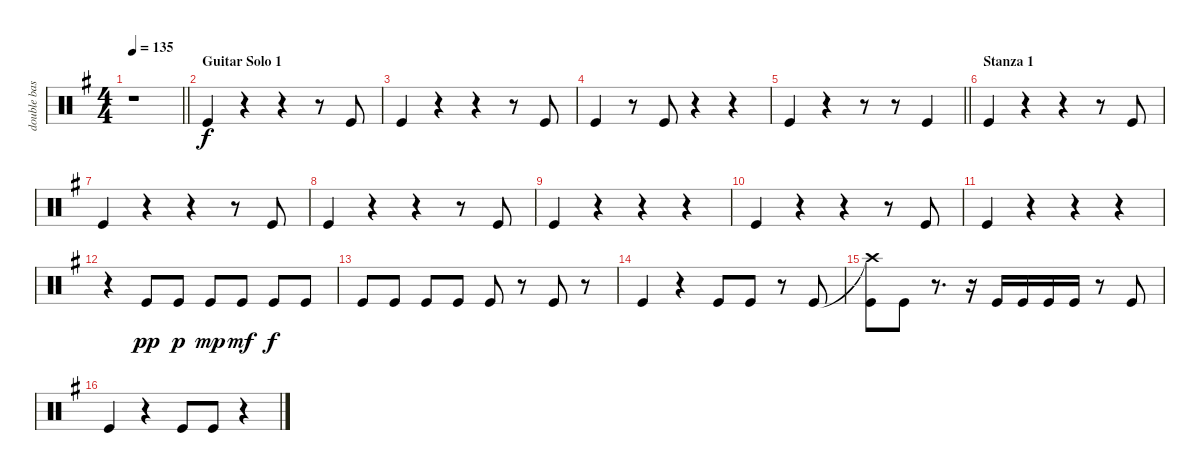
\track ("double bass" "double bas") {instrument percussion}
\staff {score}
\articulation defaults
\ts (4 4)
\tempo 135
\clef neutral
\barLineRight lightlight
\ks eminor
r.1{dy mp} |
\section ("" "Guitar Solo 1")
"Kick (hit)".4{dy f} r.4 r.4 r.8 "Kick (hit)".8 |
"Kick (hit)".4 r.4 r.4 r.8 "Kick (hit)".8 |
"Kick (hit)".4 r.8 "Kick (hit)".8 r.4 r.4 |
\barLineRight lightlight "Kick (hit)".4
r.4 r.8 r.8 "Kick (hit)".4 |
\section ("" "Stanza 1")
"Kick (hit)".4 r.4 r.4 r.8 "Kick (hit)".8 |
"Kick (hit)".4 r.4 r.4 r.8 "Kick (hit)".8 |
"Kick (hit)".4 r.4 r.4 r.8 "Kick (hit)".8 |
"Kick (hit)".4 r.4 r.4 r.4 |
"Kick (hit)".4 r.4 r.4 r.8 "Kick (hit)".8 |
"Kick (hit)".4 r.4 r.4 r.4 |
r.4 "Kick (hit)".8{dy pp} "Kick (hit)".8{dy p} "Kick (hit)".8{dy mp} "Kick (hit)".8{dy mf} "Kick (hit)".8{dy f} "Kick (hit)".8 |
"Kick (hit)".8 "Kick (hit)".8 "Kick (hit)".8 "Kick (hit)".8 "Kick (hit)".8 r.8 "Kick (hit)".8 r.8 |
"Kick (hit)".4 r.4 "Kick (hit)".8 "Kick (hit)".8 r.8 "Kick (hit)".8 |
("Crash high (hit)"{t} "Kick (hit)").8 "Kick (hit)".8 r.8{d} r.16 "Kick (hit)".16 "Kick (hit)".16 "Kick (hit)".16 "Kick (hit)".16 r.8 "Kick (hit)".8 |
"Kick (hit)".4 r.4 "Kick (hit)".8 "Kick (hit)".8 r.4
